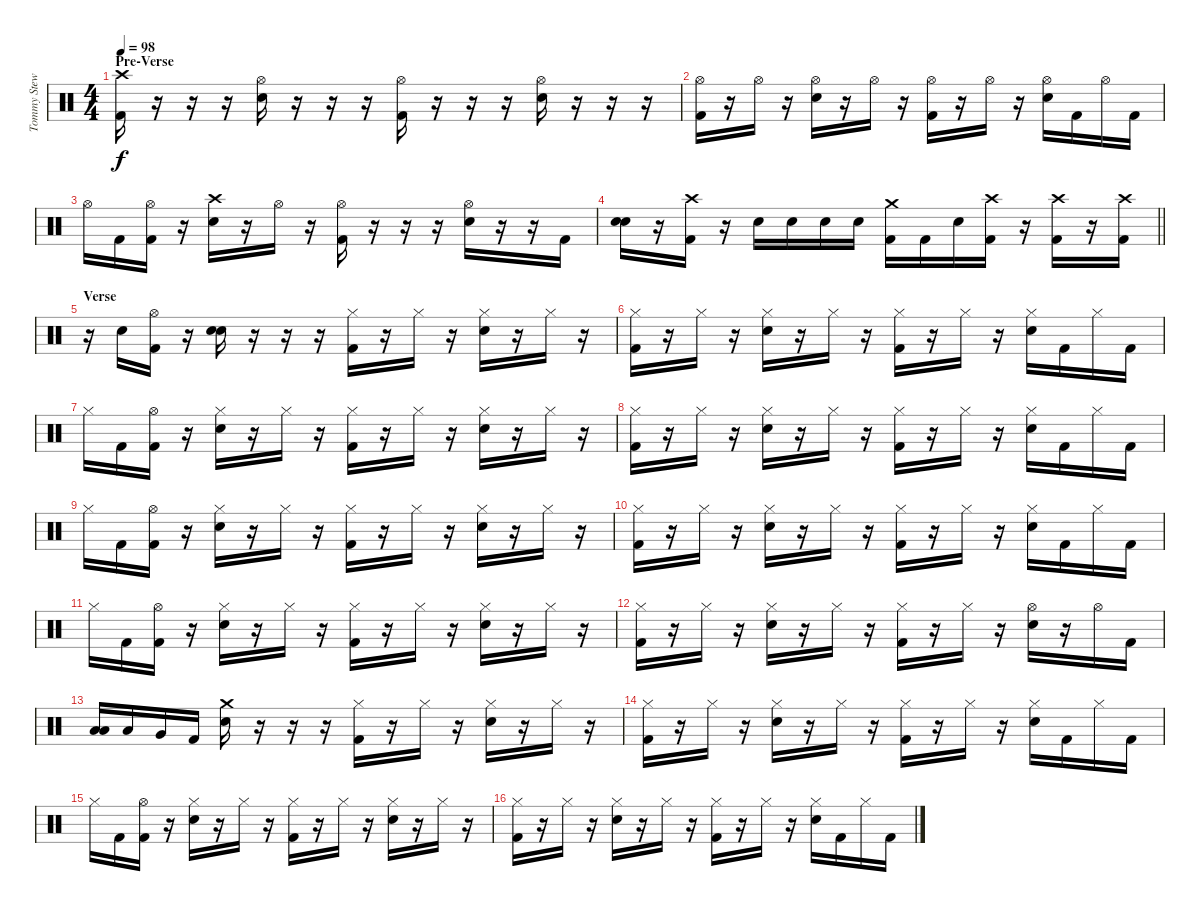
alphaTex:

\track ("Tommy Stewart - Drums" "Tommy Stew") {instrument percussion}
\staff {score}
\articulation defaults
\ts (4 4)
\section ("" "Pre-Verse")
\tempo 98
\clef neutral
\ks c
("Crash high (hit)" "Kick (hit) 2").16{dy f} r.16 r.16 r.16 ("Hi-Hat (open)" "Snare (hit) 2").16 r.16 r.16 r.16 ("Hi-Hat (open)" "Kick (hit) 2").16 r.16 r.16 r.16 ("Hi-Hat (open)" "Snare (hit) 2").16 r.16 r.16 r.16 |
("Hi-Hat (open)" "Kick (hit) 2").16 r.16 "Hi-Hat (open)".16 r.16 ("Hi-Hat (open)" "Snare (hit) 2").16 r.16 "Hi-Hat (open)".16 r.16 ("Hi-Hat (open)" "Kick (hit) 2").16 r.16 "Hi-Hat (open)".16 r.16 ("Hi-Hat (open)" "Snare (hit) 2").16 "Kick (hit) 2".16 "Hi-Hat (open)".16 "Kick (hit) 2".16 |
"Hi-Hat (open)".16 "Kick (hit) 2".16 ("Hi-Hat (open)" "Kick (hit) 2").16 r.16 ("Crash high (hit)" "Snare (hit) 2").16 r.16 "Hi-Hat (open)".16 r.16 ("Hi-Hat (open)" "Kick (hit) 2").16 r.16 r.16 r.16 ("Hi-Hat (open)" "Snare (hit) 2").16 r.16 r.16 "Kick (hit) 2".16 |
\barLineRight lightlight
("Snare (hit) 2" "Snare (hit) 2").16 r.16 ("Crash high (hit)" "Kick (hit) 2").16 r.16 "Snare (hit) 2".16 "Snare (hit) 2".16 "Snare (hit) 2".16 "Snare (hit) 2".16 ("Crash medium (hit)" "Kick (hit) 2").16 "Kick (hit) 2".16 "Snare (hit) 2".16 ("Crash high (hit)" "Kick (hit) 2").16 r.16 ("Crash high (hit)" "Kick (hit) 2").16 r.16 ("Crash high (hit)" "Kick (hit) 2").16 |
\section ("" "Verse")
r.16 "Snare (hit) 2".16 ("Hi-Hat (open)" "Kick (hit) 2").16 r.16 ("Snare (hit) 2" "Snare (hit) 2").16 r.16 r.16 r.16 ("Hi-Hat (closed)" "Kick (hit) 2").16 r.16 "Hi-Hat (closed)".16 r.16 ("Hi-Hat (closed)" "Snare (hit) 2").16 r.16 "Hi-Hat (closed)".16 r.16 |
("Hi-Hat (closed)" "Kick (hit) 2").16 r.16 "Hi-Hat (closed)".16 r.16 ("Hi-Hat (closed)" "Snare (hit) 2").16 r.16 "Hi-Hat (closed)".16 r.16 ("Hi-Hat (closed)" "Kick (hit) 2").16 r.16 "Hi-Hat (closed)".16 r.16 ("Hi-Hat (closed)" "Snare (hit) 2").16 "Kick (hit) 2".16 "Hi-Hat (closed)".16 "Kick (hit) 2".16 |
"Hi-Hat (closed)".16 "Kick (hit) 2".16 ("Hi-Hat (open)" "Kick (hit) 2").16 r.16 ("Hi-Hat (closed)" "Snare (hit) 2").16 r.16 "Hi-Hat (closed)".16 r.16 ("Hi-Hat (closed)" "Kick (hit) 2").16 r.16 "Hi-Hat (closed)".16 r.16 ("Hi-Hat (closed)" "Snare (hit) 2").16 r.16 "Hi-Hat (closed)".16 r.16 |
("Hi-Hat (closed)" "Kick (hit) 2").16 r.16 "Hi-Hat (closed)".16 r.16 ("Hi-Hat (closed)" "Snare (hit) 2").16 r.16 "Hi-Hat (closed)".16 r.16 ("Hi-Hat (closed)" "Kick (hit) 2").16 r.16 "Hi-Hat (closed)".16 r.16 ("Hi-Hat (closed)" "Snare (hit) 2").16 "Kick (hit) 2".16 "Hi-Hat (closed)".16 "Kick (hit) 2".16 |
"Hi-Hat (closed)".16 "Kick (hit) 2".16 ("Hi-Hat (open)" "Kick (hit) 2").16 r.16 ("Hi-Hat (closed)" "Snare (hit) 2").16 r.16 "Hi-Hat (closed)".16 r.16 ("Hi-Hat (closed)" "Kick (hit) 2").16 r.16 "Hi-Hat (closed)".16 r.16 ("Hi-Hat (closed)" "Snare (hit) 2").16 r.16 "Hi-Hat (closed)".16 r.16 |
("Hi-Hat (closed)" "Kick (hit) 2").16 r.16 "Hi-Hat (closed)".16 r.16 ("Hi-Hat (closed)" "Snare (hit) 2").16 r.16 "Hi-Hat (closed)".16 r.16 ("Hi-Hat (closed)" "Kick (hit) 2").16 r.16 "Hi-Hat (closed)".16 r.16 ("Hi-Hat (closed)" "Snare (hit) 2").16 "Kick (hit) 2".16 "Hi-Hat (closed)".16 "Kick (hit) 2".16 |
"Hi-Hat (closed)".16 "Kick (hit) 2".16 ("Hi-Hat (open)" "Kick (hit) 2").16 r.16 ("Hi-Hat (closed)" "Snare (hit) 2").16 r.16 "Hi-Hat (closed)".16 r.16 ("Hi-Hat (closed)" "Kick (hit) 2").16 r.16 "Hi-Hat (closed)".16 r.16 ("Hi-Hat (closed)" "Snare (hit) 2").16 r.16 "Hi-Hat (closed)".16 r.16 |
("Hi-Hat (closed)" "Kick (hit) 2").16 r.16 "Hi-Hat (closed)".16 r.16 ("Hi-Hat (closed)" "Snare (hit) 2").16 r.16 "Hi-Hat (closed)".16 r.16 ("Hi-Hat (closed)" "Kick (hit) 2").16 r.16 "Hi-Hat (closed)".16 r.16 ("Hi-Hat (open)" "Snare (hit) 2").16 r.16 "Hi-Hat (open)".16 "Kick (hit) 2".16 |
("Low Tom (hit)" "Low Tom (hit)").16 "Low Tom (hit)".16 "Very Low Tom (hit)".16 "Kick (hit) 2".16 ("Crash medium (hit)" "Snare (hit) 2").16 r.16 r.16 r.16 ("Hi-Hat (closed)" "Kick (hit) 2").16 r.16 "Hi-Hat (closed)".16 r.16 ("Hi-Hat (closed)" "Snare (hit) 2").16 r.16 "Hi-Hat (closed)".16 r.16 |
("Hi-Hat (closed)" "Kick (hit) 2").16 r.16 "Hi-Hat (closed)".16 r.16 ("Hi-Hat (closed)" "Snare (hit) 2").16 r.16 "Hi-Hat (closed)".16 r.16 ("Hi-Hat (closed)" "Kick (hit) 2").16 r.16 "Hi-Hat (closed)".16 r.16 ("Hi-Hat (closed)" "Snare (hit) 2").16 "Kick (hit) 2".16 "Hi-Hat (closed)".16 "Kick (hit) 2".16 |
"Hi-Hat (closed)".16 "Kick (hit) 2".16 ("Hi-Hat (open)" "Kick (hit) 2").16 r.16 ("Hi-Hat (closed)" "Snare (hit) 2").16 r.16 "Hi-Hat (closed)".16 r.16 ("Hi-Hat (closed)" "Kick (hit) 2").16 r.16 "Hi-Hat (closed)".16 r.16 ("Hi-Hat (closed)" "Snare (hit) 2").16 r.16 "Hi-Hat (closed)".16 r.16 |
("Hi-Hat (closed)" "Kick (hit) 2").16 r.16 "Hi-Hat (closed)".16 r.16 ("Hi-Hat (closed)" "Snare (hit) 2").16 r.16 "Hi-Hat (closed)".16 r.16 ("Hi-Hat (closed)" "Kick (hit) 2").16 r.16 "Hi-Hat (closed)".16 r.16 ("Hi-Hat (closed)" "Snare (hit) 2").16 "Kick (hit) 2".16 "Hi-Hat (closed)".16 "Kick (hit) 2".16
